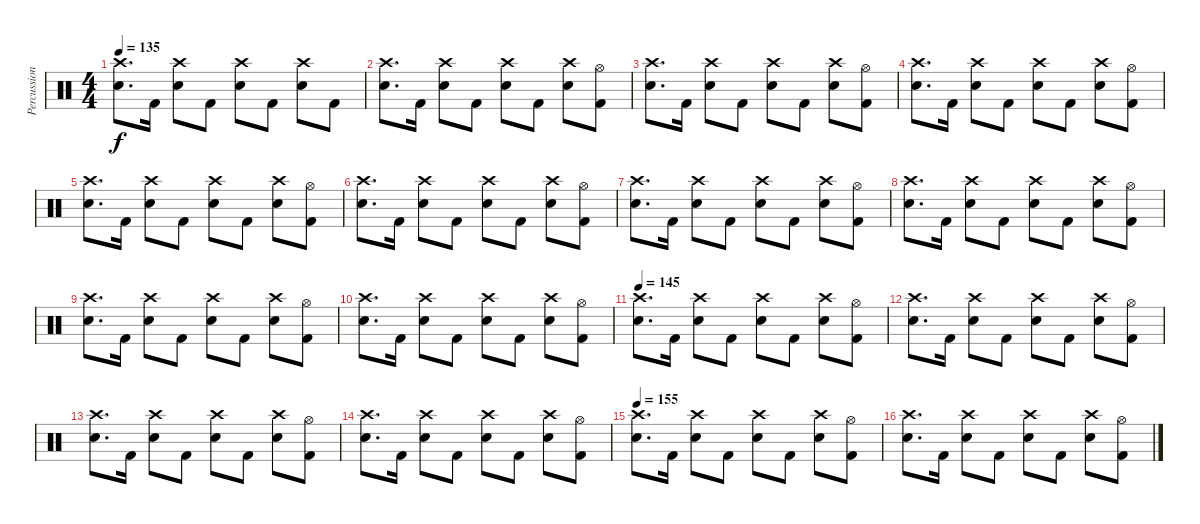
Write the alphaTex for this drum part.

\track ("Percussion" "Percussion") {instrument percussion}
\staff
\articulation defaults
\ts (4 4)
\tempo 135
\clef neutral
\ks c
("Crash high (hit)" "Electric Snare (hit)").8{d dy f} "Kick (hit) 2".16 ("Crash high (hit)" "Electric Snare (hit)").8 "Kick (hit) 2".8 ("Crash high (hit)" "Electric Snare (hit)").8 "Kick (hit) 2".8 ("Crash high (hit)" "Electric Snare (hit)").8 "Kick (hit) 2".8 |
("Crash high (hit)" "Electric Snare (hit)").8{d} "Kick (hit) 2".16 ("Crash high (hit)" "Electric Snare (hit)").8 "Kick (hit) 2".8 ("Crash high (hit)" "Electric Snare (hit)").8 "Kick (hit) 2".8 ("Crash high (hit)" "Electric Snare (hit)").8 ("Hi-Hat (open)" "Kick (hit) 2").8 |
("Crash high (hit)" "Electric Snare (hit)").8{d} "Kick (hit) 2".16 ("Crash high (hit)" "Electric Snare (hit)").8 "Kick (hit) 2".8 ("Crash high (hit)" "Electric Snare (hit)").8 "Kick (hit) 2".8 ("Crash high (hit)" "Electric Snare (hit)").8 ("Hi-Hat (open)" "Kick (hit) 2").8 |
("Crash high (hit)" "Electric Snare (hit)").8{d} "Kick (hit) 2".16 ("Crash high (hit)" "Electric Snare (hit)").8 "Kick (hit) 2".8 ("Crash high (hit)" "Electric Snare (hit)").8 "Kick (hit) 2".8 ("Crash high (hit)" "Electric Snare (hit)").8 ("Hi-Hat (open)" "Kick (hit) 2").8 |
("Crash high (hit)" "Electric Snare (hit)").8{d} "Kick (hit) 2".16 ("Crash high (hit)" "Electric Snare (hit)").8 "Kick (hit) 2".8 ("Crash high (hit)" "Electric Snare (hit)").8 "Kick (hit) 2".8 ("Crash high (hit)" "Electric Snare (hit)").8 ("Hi-Hat (open)" "Kick (hit) 2").8 |
("Crash high (hit)" "Electric Snare (hit)").8{d} "Kick (hit) 2".16 ("Crash high (hit)" "Electric Snare (hit)").8 "Kick (hit) 2".8 ("Crash high (hit)" "Electric Snare (hit)").8 "Kick (hit) 2".8 ("Crash high (hit)" "Electric Snare (hit)").8 ("Hi-Hat (open)" "Kick (hit) 2").8 |
("Crash high (hit)" "Electric Snare (hit)").8{d} "Kick (hit) 2".16 ("Crash high (hit)" "Electric Snare (hit)").8 "Kick (hit) 2".8 ("Crash high (hit)" "Electric Snare (hit)").8 "Kick (hit) 2".8 ("Crash high (hit)" "Electric Snare (hit)").8 ("Hi-Hat (open)" "Kick (hit) 2").8 |
("Crash high (hit)" "Electric Snare (hit)").8{d} "Kick (hit) 2".16 ("Crash high (hit)" "Electric Snare (hit)").8 "Kick (hit) 2".8 ("Crash high (hit)" "Electric Snare (hit)").8 "Kick (hit) 2".8 ("Crash high (hit)" "Electric Snare (hit)").8 ("Hi-Hat (open)" "Kick (hit) 2").8 |
("Crash high (hit)" "Electric Snare (hit)").8{d} "Kick (hit) 2".16 ("Crash high (hit)" "Electric Snare (hit)").8 "Kick (hit) 2".8 ("Crash high (hit)" "Electric Snare (hit)").8 "Kick (hit) 2".8 ("Crash high (hit)" "Electric Snare (hit)").8 ("Hi-Hat (open)" "Kick (hit) 2").8 |
("Crash high (hit)" "Electric Snare (hit)").8{d} "Kick (hit) 2".16 ("Crash high (hit)" "Electric Snare (hit)").8 "Kick (hit) 2".8 ("Crash high (hit)" "Electric Snare (hit)").8 "Kick (hit) 2".8 ("Crash high (hit)" "Electric Snare (hit)").8 ("Hi-Hat (open)" "Kick (hit) 2").8 |
\tempo 145
("Crash high (hit)" "Electric Snare (hit)").8{d} "Kick (hit) 2".16 ("Crash high (hit)" "Electric Snare (hit)").8 "Kick (hit) 2".8 ("Crash high (hit)" "Electric Snare (hit)").8 "Kick (hit) 2".8 ("Crash high (hit)" "Electric Snare (hit)").8 ("Hi-Hat (open)" "Kick (hit) 2").8 |
("Crash high (hit)" "Electric Snare (hit)").8{d} "Kick (hit) 2".16 ("Crash high (hit)" "Electric Snare (hit)").8 "Kick (hit) 2".8 ("Crash high (hit)" "Electric Snare (hit)").8 "Kick (hit) 2".8 ("Crash high (hit)" "Electric Snare (hit)").8 ("Hi-Hat (open)" "Kick (hit) 2").8 |
("Crash high (hit)" "Electric Snare (hit)").8{d} "Kick (hit) 2".16 ("Crash high (hit)" "Electric Snare (hit)").8 "Kick (hit) 2".8 ("Crash high (hit)" "Electric Snare (hit)").8 "Kick (hit) 2".8 ("Crash high (hit)" "Electric Snare (hit)").8 ("Hi-Hat (open)" "Kick (hit) 2").8 |
("Crash high (hit)" "Electric Snare (hit)").8{d} "Kick (hit) 2".16 ("Crash high (hit)" "Electric Snare (hit)").8 "Kick (hit) 2".8 ("Crash high (hit)" "Electric Snare (hit)").8 "Kick (hit) 2".8 ("Crash high (hit)" "Electric Snare (hit)").8 ("Hi-Hat (open)" "Kick (hit) 2").8 |
\tempo 155
("Crash high (hit)" "Electric Snare (hit)").8{d} "Kick (hit) 2".16 ("Crash high (hit)" "Electric Snare (hit)").8 "Kick (hit) 2".8 ("Crash high (hit)" "Electric Snare (hit)").8 "Kick (hit) 2".8 ("Crash high (hit)" "Electric Snare (hit)").8 ("Hi-Hat (open)" "Kick (hit) 2").8 |
("Crash high (hit)" "Electric Snare (hit)").8{d} "Kick (hit) 2".16 ("Crash high (hit)" "Electric Snare (hit)").8 "Kick (hit) 2".8 ("Crash high (hit)" "Electric Snare (hit)").8 "Kick (hit) 2".8 ("Crash high (hit)" "Electric Snare (hit)").8 ("Hi-Hat (open)" "Kick (hit) 2").8
